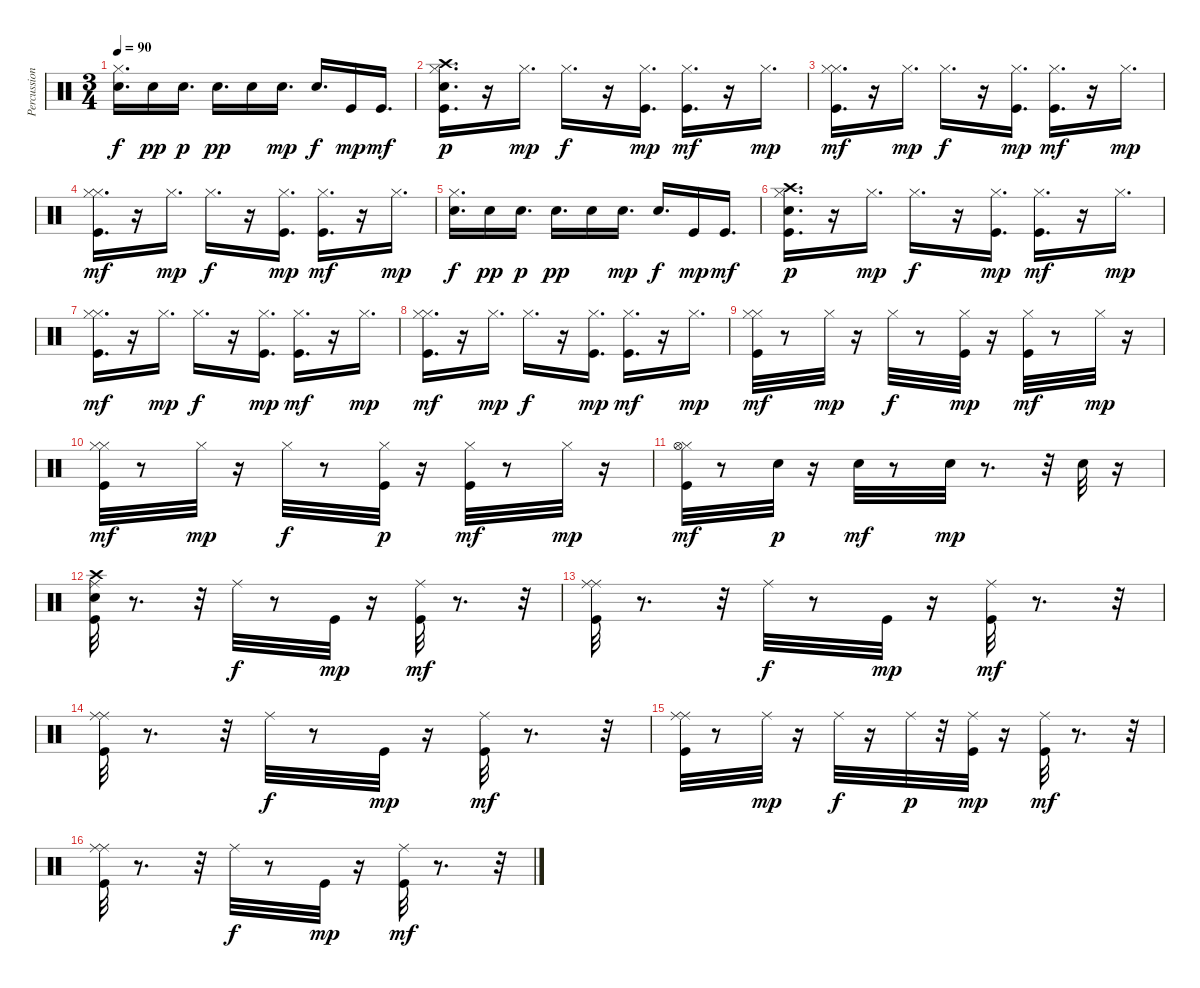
\track ("Percussion" "Percussion") {instrument percussion}
\staff {score}
\articulation defaults
\ts (3 4)
\tempo 90
\clef neutral
\ks c
("Hi-Hat (closed)" "Snare (hit) 2").16{d dy f} "Snare (hit) 2".16{dy pp} "Snare (hit) 2".16{d dy p} "Snare (hit) 2".16{d dy pp} "Snare (hit) 2".16 "Snare (hit) 2".16{d dy mp} "Snare (hit) 2".16{d dy f} "Kick (hit)".16{dy mp} "Kick (hit)".16{d dy mf} |
("Snare (hit) 2" "Kick (hit)" "Hi-Hat (closed)" "Crash high (hit)").16{d dy p} r.16 "Hi-Hat (closed)".16{d dy mp} "Hi-Hat (closed)".16{d dy f} r.16 ("Kick (hit)" "Hi-Hat (closed)").16{d dy mp} ("Kick (hit)" "Hi-Hat (closed)").16{d dy mf} r.16 "Hi-Hat (closed)".16{d dy mp} |
("Hi-Hat (closed)" "Kick (hit)" "Hi-Hat (closed)").16{d dy mf} r.16 "Hi-Hat (closed)".16{d dy mp} "Hi-Hat (closed)".16{d dy f} r.16 ("Kick (hit)" "Hi-Hat (closed)").16{d dy mp} ("Kick (hit)" "Hi-Hat (closed)").16{d dy mf} r.16 "Hi-Hat (closed)".16{d dy mp} |
("Hi-Hat (closed)" "Kick (hit)" "Hi-Hat (closed)").16{d dy mf} r.16 "Hi-Hat (closed)".16{d dy mp} "Hi-Hat (closed)".16{d dy f} r.16 ("Kick (hit)" "Hi-Hat (closed)").16{d dy mp} ("Kick (hit)" "Hi-Hat (closed)").16{d dy mf} r.16 "Hi-Hat (closed)".16{d dy mp} |
("Hi-Hat (closed)" "Snare (hit) 2").16{d dy f} "Snare (hit) 2".16{dy pp} "Snare (hit) 2".16{d dy p} "Snare (hit) 2".16{d dy pp} "Snare (hit) 2".16 "Snare (hit) 2".16{d dy mp} "Snare (hit) 2".16{d dy f} "Kick (hit)".16{dy mp} "Kick (hit)".16{d dy mf} |
("Snare (hit) 2" "Kick (hit)" "Hi-Hat (closed)" "Crash high (hit)").16{d dy p} r.16 "Hi-Hat (closed)".16{d dy mp} "Hi-Hat (closed)".16{d dy f} r.16 ("Kick (hit)" "Hi-Hat (closed)").16{d dy mp} ("Kick (hit)" "Hi-Hat (closed)").16{d dy mf} r.16 "Hi-Hat (closed)".16{d dy mp} |
("Hi-Hat (closed)" "Kick (hit)" "Hi-Hat (closed)").16{d dy mf} r.16 "Hi-Hat (closed)".16{d dy mp} "Hi-Hat (closed)".16{d dy f} r.16 ("Kick (hit)" "Hi-Hat (closed)").16{d dy mp} ("Kick (hit)" "Hi-Hat (closed)").16{d dy mf} r.16 "Hi-Hat (closed)".16{d dy mp} |
("Hi-Hat (closed)" "Kick (hit)" "Hi-Hat (closed)").16{d dy mf} r.16 "Hi-Hat (closed)".16{d dy mp} "Hi-Hat (closed)".16{d dy f} r.16 ("Kick (hit)" "Hi-Hat (closed)").16{d dy mp} ("Kick (hit)" "Hi-Hat (closed)").16{d dy mf} r.16 "Hi-Hat (closed)".16{d dy mp} |
("Hi-Hat (closed)" "Kick (hit)" "Hi-Hat (closed)").32{dy mf} r.8 "Hi-Hat (closed)".32{dy mp} r.16 "Hi-Hat (closed)".32{dy f} r.8 ("Kick (hit)" "Hi-Hat (closed)").32{dy mp} r.16 ("Kick (hit)" "Hi-Hat (closed)").32{dy mf} r.8 "Hi-Hat (closed)".32{dy mp} r.16 |
("Hi-Hat (closed)" "Kick (hit)" "Hi-Hat (closed)").32{dy mf} r.8 "Hi-Hat (closed)".32{dy mp} r.16 "Hi-Hat (closed)".32{dy f} r.8 ("Kick (hit)" "Hi-Hat (closed)").32{dy p} r.16 ("Kick (hit)" "Hi-Hat (closed)").32{dy mf} r.8 "Hi-Hat (closed)".32{dy mp} r.16 |
("Hi-Hat (closed)" "Kick (hit)" "Hi-Hat (open)").32{dy mf} r.8 "Snare (hit) 2".32{dy p} r.16 "Snare (hit) 2".32{dy mf} r.8 "Snare (hit) 2".32{dy mp} r.8{d} r.32 "Snare (hit) 2".32 r.16 |
("Snare (hit) 2" "Kick (hit)" "Ride (middle)" "Crash high (hit)").32 r.8{d} r.32 "Ride (middle)".32{dy f} r.8 "Kick (hit)".32{dy mp} r.16 ("Kick (hit)" "Ride (middle)").32{dy mf} r.8{d} r.32 |
("Ride (middle)" "Kick (hit)" "Ride (middle)").32 r.8{d} r.32 "Ride (middle)".32{dy f} r.8 "Kick (hit)".32{dy mp} r.16 ("Kick (hit)" "Ride (middle)").32{dy mf} r.8{d} r.32 |
("Ride (middle)" "Kick (hit)" "Ride (middle)").32 r.8{d} r.32 "Ride (middle)".32{dy f} r.8 "Kick (hit)".32{dy mp} r.16 ("Kick (hit)" "Ride (middle)").32{dy mf} r.8{d} r.32 |
("Ride (middle)" "Kick (hit)" "Ride (middle)").32 r.8 "Ride (middle)".32{dy mp} r.16 "Ride (middle)".32{dy f} r.16 "Ride (middle)".32{dy p} r.32 ("Kick (hit)" "Ride (middle)").32{dy mp} r.16 ("Kick (hit)" "Ride (middle)").32{dy mf} r.8{d} r.32 |
("Ride (middle)" "Kick (hit)" "Ride (middle)").32 r.8{d} r.32 "Ride (middle)".32{dy f} r.8 "Kick (hit)".32{dy mp} r.16 ("Kick (hit)" "Ride (middle)").32{dy mf} r.8{d} r.32
